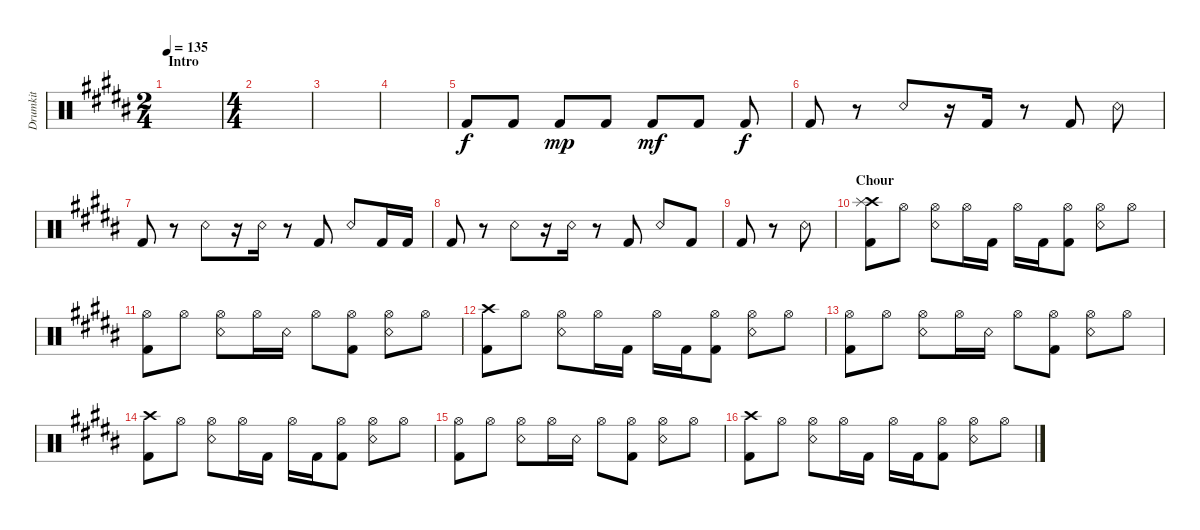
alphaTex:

\track ("Drumkit" "Drumkit") {instrument percussion}
\staff {score}
\articulation defaults
\ts (2 4)
\section ("" "Intro")
\tempo 135
\clef neutral
\ks b
|
\ts (4 4)
|
|
|
"Kick (hit) 2".8 "Kick (hit) 2".8 "Kick (hit) 2".8{dy mp} "Kick (hit) 2".8 "Kick (hit) 2".8{dy mf} "Kick (hit) 2".8 "Kick (hit) 2".8{dy f} |
"Kick (hit) 2".8 r.8 "Snare (rim shot)".8 r.16 "Kick (hit) 2".16 r.8 "Kick (hit) 2".8 "Snare (rim shot)".8 |
"Kick (hit) 2".8 r.8 "Snare (rim shot)".8 r.16 "Snare (rim shot)".16 r.8 "Kick (hit) 2".8 "Snare (rim shot)".8 "Kick (hit) 2".16 "Kick (hit) 2".16 |
"Kick (hit) 2".8 r.8 "Snare (rim shot)".8 r.16 "Snare (rim shot)".16 r.8 "Kick (hit) 2".8 "Snare (rim shot)".8 "Kick (hit) 2".8 |
"Kick (hit) 2".8 r.8 "Snare (rim shot)".8 |
\section ("" "Chour")
("Kick (hit) 2" "Crash high (hit)" "Splash (hit)").8 "Hi-Hat (open)".8 ("Snare (rim shot)" "Hi-Hat (open)").8 "Hi-Hat (open)".16 "Kick (hit) 2".16 "Hi-Hat (open)".16 "Kick (hit) 2".16 ("Kick (hit) 2" "Hi-Hat (open)").8 ("Snare (rim shot)" "Hi-Hat (open)").8 "Hi-Hat (open)".8 |
("Kick (hit) 2" "Hi-Hat (open)").8 "Hi-Hat (open)".8 ("Snare (rim shot)" "Hi-Hat (open)").8 "Hi-Hat (open)".16 "Snare (rim shot)".16 "Hi-Hat (open)".8 ("Hi-Hat (open)" "Kick (hit) 2").8 ("Snare (rim shot)" "Hi-Hat (open)").8 "Hi-Hat (open)".8 |
("Kick (hit) 2" "Crash high (hit)").8 "Hi-Hat (open)".8 ("Snare (rim shot)" "Hi-Hat (open)").8 "Hi-Hat (open)".16 "Kick (hit) 2".16 "Hi-Hat (open)".16 "Kick (hit) 2".16 ("Kick (hit) 2" "Hi-Hat (open)").8 ("Snare (rim shot)" "Hi-Hat (open)").8 "Hi-Hat (open)".8 |
("Kick (hit) 2" "Hi-Hat (open)").8 "Hi-Hat (open)".8 ("Snare (rim shot)" "Hi-Hat (open)").8 "Hi-Hat (open)".16 "Snare (rim shot)".16 "Hi-Hat (open)".8 ("Hi-Hat (open)" "Kick (hit) 2").8 ("Snare (rim shot)" "Hi-Hat (open)").8 "Hi-Hat (open)".8 |
("Kick (hit) 2" "Crash high (hit)").8 "Hi-Hat (open)".8 ("Snare (rim shot)" "Hi-Hat (open)").8 "Hi-Hat (open)".16 "Kick (hit) 2".16 "Hi-Hat (open)".16 "Kick (hit) 2".16 ("Kick (hit) 2" "Hi-Hat (open)").8 ("Snare (rim shot)" "Hi-Hat (open)").8 "Hi-Hat (open)".8 |
("Kick (hit) 2" "Hi-Hat (open)").8 "Hi-Hat (open)".8 ("Snare (rim shot)" "Hi-Hat (open)").8 "Hi-Hat (open)".16 "Snare (rim shot)".16 "Hi-Hat (open)".8 ("Hi-Hat (open)" "Kick (hit) 2").8 ("Snare (rim shot)" "Hi-Hat (open)").8 "Hi-Hat (open)".8 |
("Kick (hit) 2" "Crash high (hit)").8 "Hi-Hat (open)".8 ("Snare (rim shot)" "Hi-Hat (open)").8 "Hi-Hat (open)".16 "Kick (hit) 2".16 "Hi-Hat (open)".16 "Kick (hit) 2".16 ("Kick (hit) 2" "Hi-Hat (open)").8 ("Snare (rim shot)" "Hi-Hat (open)").8 "Hi-Hat (open)".8
